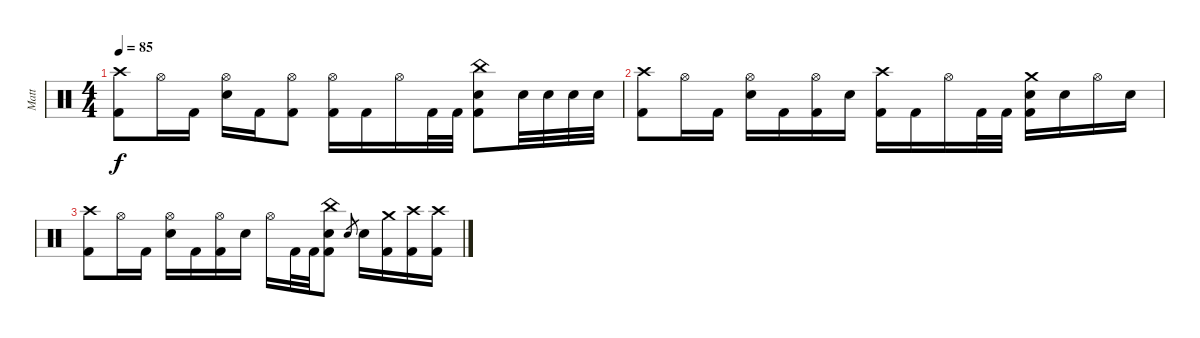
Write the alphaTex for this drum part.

\track ("Matt" "Matt") {instrument percussion}
\staff {score}
\articulation defaults
\ts (4 4)
\tempo 85
\clef neutral
\ks c
("Crash high (hit)" "Kick (hit) 2").8{dy f} "Hi-Hat (open)".16 "Kick (hit) 2".16 ("Hi-Hat (open)" "Electric Snare (hit)").16 "Kick (hit) 2".16 ("Hi-Hat (open)" "Kick (hit) 2").8 ("Hi-Hat (open)" "Kick (hit) 2").16 "Kick (hit) 2".16 "Hi-Hat (open)".16 "Kick (hit) 2".32 "Kick (hit) 2".32 ("China (hit)" "Electric Snare (hit)" "Kick (hit) 2").8 "Electric Snare (hit)".32 "Electric Snare (hit)".32 "Electric Snare (hit)".32 "Electric Snare (hit)".32 |
("Crash high (hit)" "Kick (hit) 2").8 "Hi-Hat (open)".16 "Kick (hit) 2".16 ("Hi-Hat (open)" "Electric Snare (hit)").16 "Kick (hit) 2".16 ("Hi-Hat (open)" "Kick (hit) 2").16 "Electric Snare (hit)".16 ("Crash high (hit)" "Kick (hit) 2").16 "Kick (hit) 2".16 "Hi-Hat (open)".16 "Kick (hit) 2".32 "Kick (hit) 2".32 ("Crash medium (hit)" "Electric Snare (hit)" "Kick (hit) 2").16 "Electric Snare (hit)".16 "Hi-Hat (open)".16 "Electric Snare (hit)".16 |
("Crash high (hit)" "Kick (hit) 2").8 "Hi-Hat (open)".16 "Kick (hit) 2".16 ("Hi-Hat (open)" "Electric Snare (hit)").16 "Kick (hit) 2".16 ("Hi-Hat (open)" "Kick (hit) 2").16 "Electric Snare (hit)".16 "Hi-Hat (open)".16 "Kick (hit) 2".32 "Kick (hit) 2".32 ("China (hit)" "Electric Snare (hit)" "Kick (hit) 2").8 "Electric Snare (hit)".8{gr} "Electric Snare (hit)".16 ("Crash medium (hit)" "Kick (hit) 2").16 ("Crash high (hit)" "Kick (hit) 2").16 ("Crash high (hit)" "Kick (hit) 2").16
